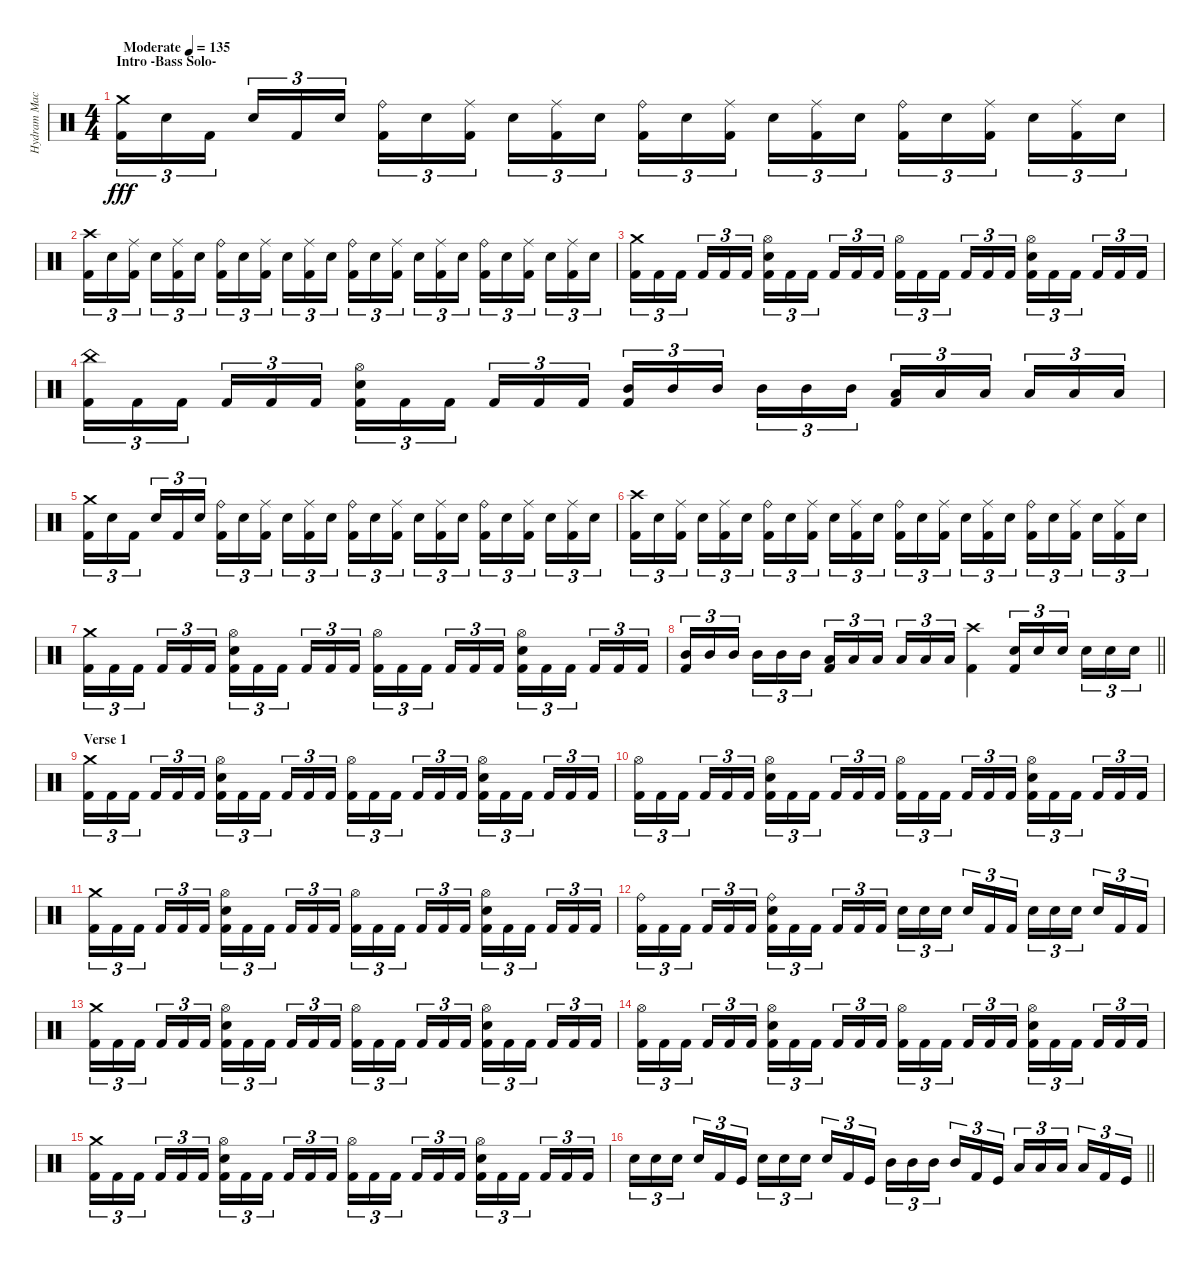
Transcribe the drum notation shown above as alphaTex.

\track ("Hydram Machine" "Hydram Mac") {instrument percussion}
\staff {score}
\articulation defaults
\ts (4 4)
\section ("" "Intro -Bass Solo-")
\tempo (135 "Moderate")
\clef neutral
\ks c
("Crash medium (hit)" "Kick (hit) 2").16{tu (3 2) dy fff} "Electric Snare (hit)".16{tu (3 2)} "Kick (hit) 2".16{tu (3 2) beam splitsecondary} "Electric Snare (hit)".16{tu (3 2)} "Kick (hit) 2".16{tu (3 2)} "Electric Snare (hit)".16{tu (3 2)} ("Ride (bell)" "Kick (hit) 2").16{tu (3 2)} "Electric Snare (hit)".16{tu (3 2)} ("Ride (middle)" "Kick (hit) 2").16{tu (3 2) beam splitsecondary} "Electric Snare (hit)".16{tu (3 2)} ("Ride (middle)" "Kick (hit) 2").16{tu (3 2)} "Electric Snare (hit)".16{tu (3 2)} ("Ride (bell)" "Kick (hit) 2").16{tu (3 2)} "Electric Snare (hit)".16{tu (3 2)} ("Ride (middle)" "Kick (hit) 2").16{tu (3 2) beam splitsecondary} "Electric Snare (hit)".16{tu (3 2)} ("Ride (middle)" "Kick (hit) 2").16{tu (3 2)} "Electric Snare (hit)".16{tu (3 2)} ("Ride (bell)" "Kick (hit) 2").16{tu (3 2)} "Electric Snare (hit)".16{tu (3 2)} ("Ride (middle)" "Kick (hit) 2").16{tu (3 2) beam splitsecondary} "Electric Snare (hit)".16{tu (3 2)} ("Ride (middle)" "Kick (hit) 2").16{tu (3 2)} "Electric Snare (hit)".16{tu (3 2)} |
("Crash high (hit)" "Kick (hit) 2").16{tu (3 2)} "Electric Snare (hit)".16{tu (3 2)} ("Ride (middle)" "Kick (hit) 2").16{tu (3 2) beam splitsecondary} "Electric Snare (hit)".16{tu (3 2)} ("Ride (middle)" "Kick (hit) 2").16{tu (3 2)} "Electric Snare (hit)".16{tu (3 2)} ("Ride (bell)" "Kick (hit) 2").16{tu (3 2)} "Electric Snare (hit)".16{tu (3 2)} ("Ride (middle)" "Kick (hit) 2").16{tu (3 2) beam splitsecondary} "Electric Snare (hit)".16{tu (3 2)} ("Ride (middle)" "Kick (hit) 2").16{tu (3 2)} "Electric Snare (hit)".16{tu (3 2)} ("Ride (bell)" "Kick (hit) 2").16{tu (3 2)} "Electric Snare (hit)".16{tu (3 2)} ("Ride (middle)" "Kick (hit) 2").16{tu (3 2) beam splitsecondary} "Electric Snare (hit)".16{tu (3 2)} ("Ride (middle)" "Kick (hit) 2").16{tu (3 2)} "Electric Snare (hit)".16{tu (3 2)} ("Ride (bell)" "Kick (hit) 2").16{tu (3 2)} "Electric Snare (hit)".16{tu (3 2)} ("Ride (middle)" "Kick (hit) 2").16{tu (3 2) beam splitsecondary} "Electric Snare (hit)".16{tu (3 2)} ("Ride (middle)" "Kick (hit) 2").16{tu (3 2)} "Electric Snare (hit)".16{tu (3 2)} |
("Crash medium (hit)" "Kick (hit) 2").16{tu (3 2)} "Kick (hit) 2".16{tu (3 2)} "Kick (hit) 2".16{tu (3 2) beam splitsecondary} "Kick (hit) 2".16{tu (3 2)} "Kick (hit) 2".16{tu (3 2)} "Kick (hit) 2".16{tu (3 2)} ("Hi-Hat (open)" "Electric Snare (hit)" "Kick (hit) 2").16{tu (3 2)} "Kick (hit) 2".16{tu (3 2)} "Kick (hit) 2".16{tu (3 2) beam splitsecondary} "Kick (hit) 2".16{tu (3 2)} "Kick (hit) 2".16{tu (3 2)} "Kick (hit) 2".16{tu (3 2)} ("Hi-Hat (open)" "Kick (hit) 2").16{tu (3 2)} "Kick (hit) 2".16{tu (3 2)} "Kick (hit) 2".16{tu (3 2) beam splitsecondary} "Kick (hit) 2".16{tu (3 2)} "Kick (hit) 2".16{tu (3 2)} "Kick (hit) 2".16{tu (3 2)} ("Hi-Hat (open)" "Electric Snare (hit)" "Kick (hit) 2").16{tu (3 2)} "Kick (hit) 2".16{tu (3 2)} "Kick (hit) 2".16{tu (3 2) beam splitsecondary} "Kick (hit) 2".16{tu (3 2)} "Kick (hit) 2".16{tu (3 2)} "Kick (hit) 2".16{tu (3 2)} |
("China (hit)" "Kick (hit) 2").16{tu (3 2)} "Kick (hit) 2".16{tu (3 2)} "Kick (hit) 2".16{tu (3 2) beam splitsecondary} "Kick (hit) 2".16{tu (3 2)} "Kick (hit) 2".16{tu (3 2)} "Kick (hit) 2".16{tu (3 2)} ("Hi-Hat (open)" "Electric Snare (hit)" "Kick (hit) 2").16{tu (3 2)} "Kick (hit) 2".16{tu (3 2)} "Kick (hit) 2".16{tu (3 2) beam splitsecondary} "Kick (hit) 2".16{tu (3 2)} "Kick (hit) 2".16{tu (3 2)} "Kick (hit) 2".16{tu (3 2)} ("Mid Tom (hit)" "Kick (hit) 2").16{tu (3 2)} "Mid Tom (hit)".16{tu (3 2)} "Mid Tom (hit)".16{tu (3 2) beam splitsecondary} "Mid Tom (hit)".16{tu (3 2)} "Mid Tom (hit)".16{tu (3 2)} "Mid Tom (hit)".16{tu (3 2)} ("Low Tom (hit)" "Kick (hit) 2").16{tu (3 2)} "Low Tom (hit)".16{tu (3 2)} "Low Tom (hit)".16{tu (3 2) beam splitsecondary} "Low Tom (hit)".16{tu (3 2)} "Low Tom (hit)".16{tu (3 2)} "Low Tom (hit)".16{tu (3 2)} |
("Crash medium (hit)" "Kick (hit) 2").16{tu (3 2)} "Electric Snare (hit)".16{tu (3 2)} "Kick (hit) 2".16{tu (3 2) beam splitsecondary} "Electric Snare (hit)".16{tu (3 2)} "Kick (hit) 2".16{tu (3 2)} "Electric Snare (hit)".16{tu (3 2)} ("Ride (bell)" "Kick (hit) 2").16{tu (3 2)} "Electric Snare (hit)".16{tu (3 2)} ("Ride (middle)" "Kick (hit) 2").16{tu (3 2) beam splitsecondary} "Electric Snare (hit)".16{tu (3 2)} ("Ride (middle)" "Kick (hit) 2").16{tu (3 2)} "Electric Snare (hit)".16{tu (3 2)} ("Ride (bell)" "Kick (hit) 2").16{tu (3 2)} "Electric Snare (hit)".16{tu (3 2)} ("Ride (middle)" "Kick (hit) 2").16{tu (3 2) beam splitsecondary} "Electric Snare (hit)".16{tu (3 2)} ("Ride (middle)" "Kick (hit) 2").16{tu (3 2)} "Electric Snare (hit)".16{tu (3 2)} ("Ride (bell)" "Kick (hit) 2").16{tu (3 2)} "Electric Snare (hit)".16{tu (3 2)} ("Ride (middle)" "Kick (hit) 2").16{tu (3 2) beam splitsecondary} "Electric Snare (hit)".16{tu (3 2)} ("Ride (middle)" "Kick (hit) 2").16{tu (3 2)} "Electric Snare (hit)".16{tu (3 2)} |
("Crash high (hit)" "Kick (hit) 2").16{tu (3 2)} "Electric Snare (hit)".16{tu (3 2)} ("Ride (middle)" "Kick (hit) 2").16{tu (3 2) beam splitsecondary} "Electric Snare (hit)".16{tu (3 2)} ("Ride (middle)" "Kick (hit) 2").16{tu (3 2)} "Electric Snare (hit)".16{tu (3 2)} ("Ride (bell)" "Kick (hit) 2").16{tu (3 2)} "Electric Snare (hit)".16{tu (3 2)} ("Ride (middle)" "Kick (hit) 2").16{tu (3 2) beam splitsecondary} "Electric Snare (hit)".16{tu (3 2)} ("Ride (middle)" "Kick (hit) 2").16{tu (3 2)} "Electric Snare (hit)".16{tu (3 2)} ("Ride (bell)" "Kick (hit) 2").16{tu (3 2)} "Electric Snare (hit)".16{tu (3 2)} ("Ride (middle)" "Kick (hit) 2").16{tu (3 2) beam splitsecondary} "Electric Snare (hit)".16{tu (3 2)} ("Ride (middle)" "Kick (hit) 2").16{tu (3 2)} "Electric Snare (hit)".16{tu (3 2)} ("Ride (bell)" "Kick (hit) 2").16{tu (3 2)} "Electric Snare (hit)".16{tu (3 2)} ("Ride (middle)" "Kick (hit) 2").16{tu (3 2) beam splitsecondary} "Electric Snare (hit)".16{tu (3 2)} ("Ride (middle)" "Kick (hit) 2").16{tu (3 2)} "Electric Snare (hit)".16{tu (3 2)} |
("Crash medium (hit)" "Kick (hit) 2").16{tu (3 2)} "Kick (hit) 2".16{tu (3 2)} "Kick (hit) 2".16{tu (3 2) beam splitsecondary} "Kick (hit) 2".16{tu (3 2)} "Kick (hit) 2".16{tu (3 2)} "Kick (hit) 2".16{tu (3 2)} ("Hi-Hat (open)" "Electric Snare (hit)" "Kick (hit) 2").16{tu (3 2)} "Kick (hit) 2".16{tu (3 2)} "Kick (hit) 2".16{tu (3 2) beam splitsecondary} "Kick (hit) 2".16{tu (3 2)} "Kick (hit) 2".16{tu (3 2)} "Kick (hit) 2".16{tu (3 2)} ("Hi-Hat (open)" "Kick (hit) 2").16{tu (3 2)} "Kick (hit) 2".16{tu (3 2)} "Kick (hit) 2".16{tu (3 2) beam splitsecondary} "Kick (hit) 2".16{tu (3 2)} "Kick (hit) 2".16{tu (3 2)} "Kick (hit) 2".16{tu (3 2)} ("Hi-Hat (open)" "Electric Snare (hit)" "Kick (hit) 2").16{tu (3 2)} "Kick (hit) 2".16{tu (3 2)} "Kick (hit) 2".16{tu (3 2) beam splitsecondary} "Kick (hit) 2".16{tu (3 2)} "Kick (hit) 2".16{tu (3 2)} "Kick (hit) 2".16{tu (3 2)} |
\barLineRight lightlight
("Mid Tom (hit)" "Kick (hit) 2").16{tu (3 2)} "Mid Tom (hit)".16{tu (3 2)} "Mid Tom (hit)".16{tu (3 2) beam splitsecondary} "Mid Tom (hit)".16{tu (3 2)} "Mid Tom (hit)".16{tu (3 2)} "Mid Tom (hit)".16{tu (3 2)} ("Low Tom (hit)" "Kick (hit) 2").16{tu (3 2)} "Low Tom (hit)".16{tu (3 2)} "Low Tom (hit)".16{tu (3 2) beam splitsecondary} "Low Tom (hit)".16{tu (3 2)} "Low Tom (hit)".16{tu (3 2)} "Low Tom (hit)".16{tu (3 2)} ("Crash high (hit)" "Kick (hit) 2").4 ("Electric Snare (hit)" "Kick (hit) 2").16{tu (3 2)} "Electric Snare (hit)".16{tu (3 2)} "Electric Snare (hit)".16{tu (3 2) beam splitsecondary} "Electric Snare (hit)".16{tu (3 2)} "Electric Snare (hit)".16{tu (3 2)} "Electric Snare (hit)".16{tu (3 2)} |
\section ("" "Verse 1")
("Crash medium (hit)" "Kick (hit) 2").16{tu (3 2)} "Kick (hit) 2".16{tu (3 2)} "Kick (hit) 2".16{tu (3 2) beam splitsecondary} "Kick (hit) 2".16{tu (3 2)} "Kick (hit) 2".16{tu (3 2)} "Kick (hit) 2".16{tu (3 2)} ("Hi-Hat (open)" "Electric Snare (hit)" "Kick (hit) 2").16{tu (3 2)} "Kick (hit) 2".16{tu (3 2)} "Kick (hit) 2".16{tu (3 2) beam splitsecondary} "Kick (hit) 2".16{tu (3 2)} "Kick (hit) 2".16{tu (3 2)} "Kick (hit) 2".16{tu (3 2)} ("Hi-Hat (open)" "Kick (hit) 2").16{tu (3 2)} "Kick (hit) 2".16{tu (3 2)} "Kick (hit) 2".16{tu (3 2) beam splitsecondary} "Kick (hit) 2".16{tu (3 2)} "Kick (hit) 2".16{tu (3 2)} "Kick (hit) 2".16{tu (3 2)} ("Hi-Hat (open)" "Electric Snare (hit)" "Kick (hit) 2").16{tu (3 2)} "Kick (hit) 2".16{tu (3 2)} "Kick (hit) 2".16{tu (3 2) beam splitsecondary} "Kick (hit) 2".16{tu (3 2)} "Kick (hit) 2".16{tu (3 2)} "Kick (hit) 2".16{tu (3 2)} |
("Hi-Hat (open)" "Kick (hit) 2").16{tu (3 2)} "Kick (hit) 2".16{tu (3 2)} "Kick (hit) 2".16{tu (3 2) beam splitsecondary} "Kick (hit) 2".16{tu (3 2)} "Kick (hit) 2".16{tu (3 2)} "Kick (hit) 2".16{tu (3 2)} ("Hi-Hat (open)" "Electric Snare (hit)" "Kick (hit) 2").16{tu (3 2)} "Kick (hit) 2".16{tu (3 2)} "Kick (hit) 2".16{tu (3 2) beam splitsecondary} "Kick (hit) 2".16{tu (3 2)} "Kick (hit) 2".16{tu (3 2)} "Kick (hit) 2".16{tu (3 2)} ("Hi-Hat (open)" "Kick (hit) 2").16{tu (3 2)} "Kick (hit) 2".16{tu (3 2)} "Kick (hit) 2".16{tu (3 2) beam splitsecondary} "Kick (hit) 2".16{tu (3 2)} "Kick (hit) 2".16{tu (3 2)} "Kick (hit) 2".16{tu (3 2)} ("Hi-Hat (open)" "Electric Snare (hit)" "Kick (hit) 2").16{tu (3 2)} "Kick (hit) 2".16{tu (3 2)} "Kick (hit) 2".16{tu (3 2) beam splitsecondary} "Kick (hit) 2".16{tu (3 2)} "Kick (hit) 2".16{tu (3 2)} "Kick (hit) 2".16{tu (3 2)} |
("Crash medium (hit)" "Kick (hit) 2").16{tu (3 2)} "Kick (hit) 2".16{tu (3 2)} "Kick (hit) 2".16{tu (3 2) beam splitsecondary} "Kick (hit) 2".16{tu (3 2)} "Kick (hit) 2".16{tu (3 2)} "Kick (hit) 2".16{tu (3 2)} ("Hi-Hat (open)" "Electric Snare (hit)" "Kick (hit) 2").16{tu (3 2)} "Kick (hit) 2".16{tu (3 2)} "Kick (hit) 2".16{tu (3 2) beam splitsecondary} "Kick (hit) 2".16{tu (3 2)} "Kick (hit) 2".16{tu (3 2)} "Kick (hit) 2".16{tu (3 2)} ("Hi-Hat (open)" "Kick (hit) 2").16{tu (3 2)} "Kick (hit) 2".16{tu (3 2)} "Kick (hit) 2".16{tu (3 2) beam splitsecondary} "Kick (hit) 2".16{tu (3 2)} "Kick (hit) 2".16{tu (3 2)} "Kick (hit) 2".16{tu (3 2)} ("Hi-Hat (open)" "Electric Snare (hit)" "Kick (hit) 2").16{tu (3 2)} "Kick (hit) 2".16{tu (3 2)} "Kick (hit) 2".16{tu (3 2) beam splitsecondary} "Kick (hit) 2".16{tu (3 2)} "Kick (hit) 2".16{tu (3 2)} "Kick (hit) 2".16{tu (3 2)} |
("Ride (bell)" "Kick (hit) 2").16{tu (3 2)} "Kick (hit) 2".16{tu (3 2)} "Kick (hit) 2".16{tu (3 2) beam splitsecondary} "Kick (hit) 2".16{tu (3 2)} "Kick (hit) 2".16{tu (3 2)} "Kick (hit) 2".16{tu (3 2)} ("Ride (bell)" "Electric Snare (hit)" "Kick (hit) 2").16{tu (3 2)} "Kick (hit) 2".16{tu (3 2)} "Kick (hit) 2".16{tu (3 2) beam splitsecondary} "Kick (hit) 2".16{tu (3 2)} "Kick (hit) 2".16{tu (3 2)} "Kick (hit) 2".16{tu (3 2)} "Electric Snare (hit)".16{tu (3 2)} "Electric Snare (hit)".16{tu (3 2)} "Electric Snare (hit)".16{tu (3 2) beam splitsecondary} "Electric Snare (hit)".16{tu (3 2)} "Kick (hit) 2".16{tu (3 2)} "Kick (hit) 2".16{tu (3 2)} "Electric Snare (hit)".16{tu (3 2)} "Electric Snare (hit)".16{tu (3 2)} "Electric Snare (hit)".16{tu (3 2) beam splitsecondary} "Electric Snare (hit)".16{tu (3 2)} "Kick (hit) 2".16{tu (3 2)} "Kick (hit) 2".16{tu (3 2)} |
("Crash medium (hit)" "Kick (hit) 2").16{tu (3 2)} "Kick (hit) 2".16{tu (3 2)} "Kick (hit) 2".16{tu (3 2) beam splitsecondary} "Kick (hit) 2".16{tu (3 2)} "Kick (hit) 2".16{tu (3 2)} "Kick (hit) 2".16{tu (3 2)} ("Hi-Hat (open)" "Electric Snare (hit)" "Kick (hit) 2").16{tu (3 2)} "Kick (hit) 2".16{tu (3 2)} "Kick (hit) 2".16{tu (3 2) beam splitsecondary} "Kick (hit) 2".16{tu (3 2)} "Kick (hit) 2".16{tu (3 2)} "Kick (hit) 2".16{tu (3 2)} ("Hi-Hat (open)" "Kick (hit) 2").16{tu (3 2)} "Kick (hit) 2".16{tu (3 2)} "Kick (hit) 2".16{tu (3 2) beam splitsecondary} "Kick (hit) 2".16{tu (3 2)} "Kick (hit) 2".16{tu (3 2)} "Kick (hit) 2".16{tu (3 2)} ("Hi-Hat (open)" "Electric Snare (hit)" "Kick (hit) 2").16{tu (3 2)} "Kick (hit) 2".16{tu (3 2)} "Kick (hit) 2".16{tu (3 2) beam splitsecondary} "Kick (hit) 2".16{tu (3 2)} "Kick (hit) 2".16{tu (3 2)} "Kick (hit) 2".16{tu (3 2)} |
("Hi-Hat (open)" "Kick (hit) 2").16{tu (3 2)} "Kick (hit) 2".16{tu (3 2)} "Kick (hit) 2".16{tu (3 2) beam splitsecondary} "Kick (hit) 2".16{tu (3 2)} "Kick (hit) 2".16{tu (3 2)} "Kick (hit) 2".16{tu (3 2)} ("Hi-Hat (open)" "Electric Snare (hit)" "Kick (hit) 2").16{tu (3 2)} "Kick (hit) 2".16{tu (3 2)} "Kick (hit) 2".16{tu (3 2) beam splitsecondary} "Kick (hit) 2".16{tu (3 2)} "Kick (hit) 2".16{tu (3 2)} "Kick (hit) 2".16{tu (3 2)} ("Hi-Hat (open)" "Kick (hit) 2").16{tu (3 2)} "Kick (hit) 2".16{tu (3 2)} "Kick (hit) 2".16{tu (3 2) beam splitsecondary} "Kick (hit) 2".16{tu (3 2)} "Kick (hit) 2".16{tu (3 2)} "Kick (hit) 2".16{tu (3 2)} ("Hi-Hat (open)" "Electric Snare (hit)" "Kick (hit) 2").16{tu (3 2)} "Kick (hit) 2".16{tu (3 2)} "Kick (hit) 2".16{tu (3 2) beam splitsecondary} "Kick (hit) 2".16{tu (3 2)} "Kick (hit) 2".16{tu (3 2)} "Kick (hit) 2".16{tu (3 2)} |
("Crash medium (hit)" "Kick (hit) 2").16{tu (3 2)} "Kick (hit) 2".16{tu (3 2)} "Kick (hit) 2".16{tu (3 2) beam splitsecondary} "Kick (hit) 2".16{tu (3 2)} "Kick (hit) 2".16{tu (3 2)} "Kick (hit) 2".16{tu (3 2)} ("Hi-Hat (open)" "Electric Snare (hit)" "Kick (hit) 2").16{tu (3 2)} "Kick (hit) 2".16{tu (3 2)} "Kick (hit) 2".16{tu (3 2) beam splitsecondary} "Kick (hit) 2".16{tu (3 2)} "Kick (hit) 2".16{tu (3 2)} "Kick (hit) 2".16{tu (3 2)} ("Hi-Hat (open)" "Kick (hit) 2").16{tu (3 2)} "Kick (hit) 2".16{tu (3 2)} "Kick (hit) 2".16{tu (3 2) beam splitsecondary} "Kick (hit) 2".16{tu (3 2)} "Kick (hit) 2".16{tu (3 2)} "Kick (hit) 2".16{tu (3 2)} ("Hi-Hat (open)" "Electric Snare (hit)" "Kick (hit) 2").16{tu (3 2)} "Kick (hit) 2".16{tu (3 2)} "Kick (hit) 2".16{tu (3 2) beam splitsecondary} "Kick (hit) 2".16{tu (3 2)} "Kick (hit) 2".16{tu (3 2)} "Kick (hit) 2".16{tu (3 2)} |
\barLineRight lightlight "Electric Snare (hit)".16{tu (3 2)} "Electric Snare (hit)".16{tu (3 2)} "Electric Snare (hit)".16{tu (3 2) beam splitsecondary} "Electric Snare (hit)".16{tu (3 2)} "Kick (hit) 2".16{tu (3 2)} "Kick (hit)".16{tu (3 2)} "Electric Snare (hit)".16{tu (3 2)} "Electric Snare (hit)".16{tu (3 2)} "Electric Snare (hit)".16{tu (3 2) beam splitsecondary} "Electric Snare (hit)".16{tu (3 2)} "Kick (hit) 2".16{tu (3 2)} "Kick (hit)".16{tu (3 2)} "Mid Tom (hit)".16{tu (3 2)} "Mid Tom (hit)".16{tu (3 2)} "Mid Tom (hit)".16{tu (3 2) beam splitsecondary} "Mid Tom (hit)".16{tu (3 2)} "Kick (hit) 2".16{tu (3 2)} "Kick (hit)".16{tu (3 2)} "Low Tom (hit)".16{tu (3 2)} "Low Tom (hit)".16{tu (3 2)} "Low Tom (hit)".16{tu (3 2) beam splitsecondary} "Low Tom (hit)".16{tu (3 2)} "Kick (hit) 2".16{tu (3 2)} "Kick (hit)".16{tu (3 2)}
